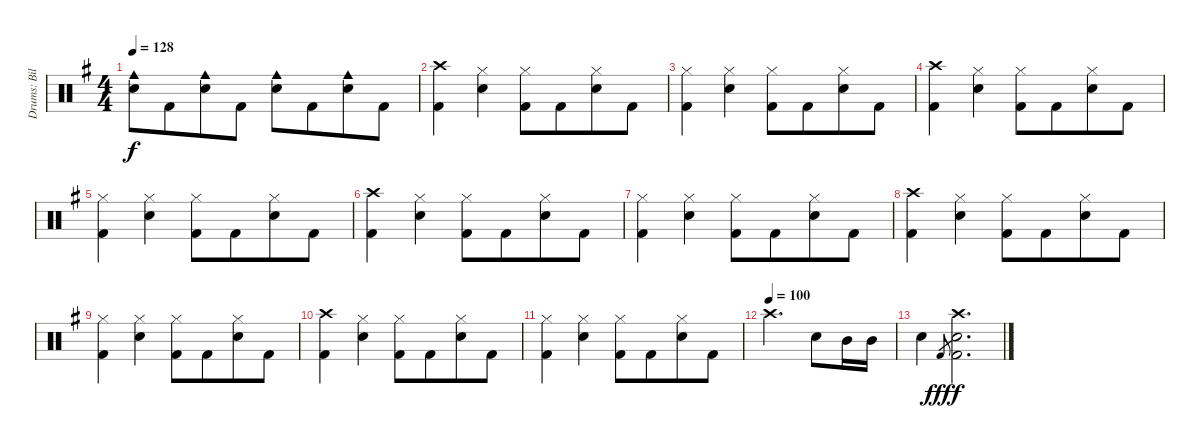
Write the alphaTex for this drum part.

\track ("Drums: Bill" "Drums: Bil") {instrument percussion}
\staff {score}
\articulation defaults
\ts (4 4)
\tempo 128
\clef neutral
\ks g
("Snare (hit) 2" "Cowbell medium (hit)").8{dy f} "Kick (hit) 2".8{beam merge} ("Snare (hit) 2" "Cowbell medium (hit)").8 "Kick (hit) 2".8{beam split} ("Snare (hit) 2" "Cowbell medium (hit)").8 "Kick (hit) 2".8{beam merge} ("Snare (hit) 2" "Cowbell medium (hit)").8 "Kick (hit) 2".8 |
("Crash high (hit)" "Kick (hit) 2").4 ("Hi-Hat (closed)" "Snare (hit) 2").4{beam split} ("Hi-Hat (closed)" "Kick (hit) 2").8 "Kick (hit) 2".8{beam merge} ("Hi-Hat (closed)" "Snare (hit) 2").8 "Kick (hit) 2".8 |
("Hi-Hat (closed)" "Kick (hit) 2").4 ("Hi-Hat (closed)" "Snare (hit) 2").4{beam split} ("Hi-Hat (closed)" "Kick (hit) 2").8 "Kick (hit) 2".8{beam merge} ("Hi-Hat (closed)" "Snare (hit) 2").8 "Kick (hit) 2".8 |
("Crash high (hit)" "Kick (hit) 2").4 ("Hi-Hat (closed)" "Snare (hit) 2").4{beam split} ("Hi-Hat (closed)" "Kick (hit) 2").8 "Kick (hit) 2".8{beam merge} ("Hi-Hat (closed)" "Snare (hit) 2").8 "Kick (hit) 2".8 |
("Hi-Hat (closed)" "Kick (hit) 2").4 ("Hi-Hat (closed)" "Snare (hit) 2").4{beam split} ("Hi-Hat (closed)" "Kick (hit) 2").8 "Kick (hit) 2".8{beam merge} ("Hi-Hat (closed)" "Snare (hit) 2").8 "Kick (hit) 2".8 |
("Crash high (hit)" "Kick (hit) 2").4 ("Hi-Hat (closed)" "Snare (hit) 2").4{beam split} ("Hi-Hat (closed)" "Kick (hit) 2").8 "Kick (hit) 2".8{beam merge} ("Hi-Hat (closed)" "Snare (hit) 2").8 "Kick (hit) 2".8 |
("Hi-Hat (closed)" "Kick (hit) 2").4 ("Hi-Hat (closed)" "Snare (hit) 2").4{beam split} ("Hi-Hat (closed)" "Kick (hit) 2").8 "Kick (hit) 2".8{beam merge} ("Hi-Hat (closed)" "Snare (hit) 2").8 "Kick (hit) 2".8 |
("Crash high (hit)" "Kick (hit) 2").4 ("Hi-Hat (closed)" "Snare (hit) 2").4{beam split} ("Hi-Hat (closed)" "Kick (hit) 2").8 "Kick (hit) 2".8{beam merge} ("Hi-Hat (closed)" "Snare (hit) 2").8 "Kick (hit) 2".8 |
("Hi-Hat (closed)" "Kick (hit) 2").4 ("Hi-Hat (closed)" "Snare (hit) 2").4{beam split} ("Hi-Hat (closed)" "Kick (hit) 2").8 "Kick (hit) 2".8{beam merge} ("Hi-Hat (closed)" "Snare (hit) 2").8 "Kick (hit) 2".8 |
("Crash high (hit)" "Kick (hit) 2").4 ("Hi-Hat (closed)" "Snare (hit) 2").4{beam split} ("Hi-Hat (closed)" "Kick (hit) 2").8 "Kick (hit) 2".8{beam merge} ("Hi-Hat (closed)" "Snare (hit) 2").8 "Kick (hit) 2".8 |
("Hi-Hat (closed)" "Kick (hit) 2").4 ("Hi-Hat (closed)" "Snare (hit) 2").4{beam split} ("Hi-Hat (closed)" "Kick (hit) 2").8 "Kick (hit) 2".8{beam merge} ("Hi-Hat (closed)" "Snare (hit) 2").8 "Kick (hit) 2".8 |
\tempo (100)
"Crash high (hit)".2{d} "Snare (hit) 2".8 "Mid Tom (hit)".16 "Mid Tom (hit)".16 |
"Snare (hit) 2".4 "Kick (hit) 2".8{gr dy fff} ("Crash high (hit)" "Snare (hit) 2" "Kick (hit) 2").2{d dy f}
